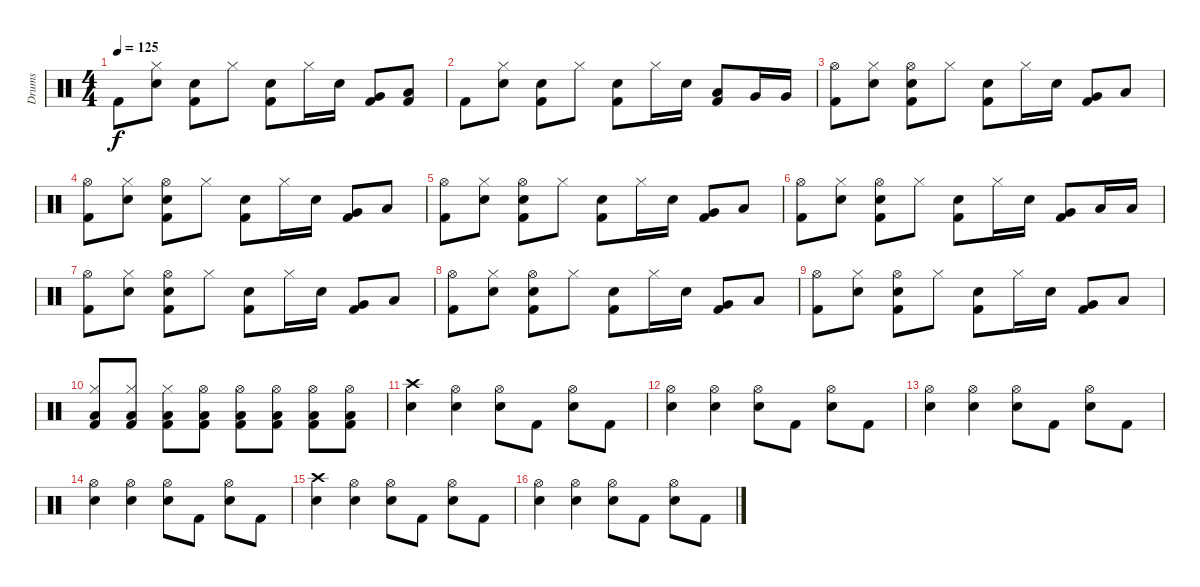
\track ("Drums" "Drums") {instrument percussion}
\staff {score}
\articulation defaults
\ts (4 4)
\tempo 125
\clef neutral
\ks c "Kick (hit) 2".8{dy f}
("Hi-Hat (closed)" "Electric Snare (hit)").8 ("Electric Snare (hit)" "Kick (hit) 2").8 "Hi-Hat (closed)".8 ("Electric Snare (hit)" "Kick (hit) 2").8 "Hi-Hat (closed)".16 "Electric Snare (hit)".16 ("Very Low Tom (hit)" "Kick (hit) 2").8 ("Low Floor Tom (hit)" "Kick (hit) 2").8 |
"Kick (hit) 2".8 ("Hi-Hat (closed)" "Electric Snare (hit)").8 ("Electric Snare (hit)" "Kick (hit) 2").8 "Hi-Hat (closed)".8 ("Electric Snare (hit)" "Kick (hit) 2").8 "Hi-Hat (closed)".16 "Electric Snare (hit)".16 ("Low Floor Tom (hit)" "Kick (hit) 2").8 "Very Low Tom (hit)".16 "Very Low Tom (hit)".16 |
("Hi-Hat (open)" "Kick (hit) 2").8 ("Hi-Hat (closed)" "Electric Snare (hit)").8 ("Hi-Hat (open)" "Electric Snare (hit)" "Kick (hit) 2").8 "Hi-Hat (closed)".8 ("Electric Snare (hit)" "Kick (hit) 2").8 "Hi-Hat (closed)".16 "Electric Snare (hit)".16 ("Very Low Tom (hit)" "Kick (hit) 2").8 "Low Floor Tom (hit)".8 |
("Hi-Hat (open)" "Kick (hit) 2").8 ("Hi-Hat (closed)" "Electric Snare (hit)").8 ("Hi-Hat (open)" "Electric Snare (hit)" "Kick (hit) 2").8 "Hi-Hat (closed)".8 ("Electric Snare (hit)" "Kick (hit) 2").8 "Hi-Hat (closed)".16 "Electric Snare (hit)".16 ("Very Low Tom (hit)" "Kick (hit) 2").8 "Low Floor Tom (hit)".8 |
("Hi-Hat (open)" "Kick (hit) 2").8 ("Hi-Hat (closed)" "Electric Snare (hit)").8 ("Hi-Hat (open)" "Electric Snare (hit)" "Kick (hit) 2").8 "Hi-Hat (closed)".8 ("Electric Snare (hit)" "Kick (hit) 2").8 "Hi-Hat (closed)".16 "Electric Snare (hit)".16 ("Very Low Tom (hit)" "Kick (hit) 2").8 "Low Floor Tom (hit)".8 |
("Hi-Hat (open)" "Kick (hit) 2").8 ("Hi-Hat (closed)" "Electric Snare (hit)").8 ("Hi-Hat (open)" "Electric Snare (hit)" "Kick (hit) 2").8 "Hi-Hat (closed)".8 ("Electric Snare (hit)" "Kick (hit) 2").8 "Hi-Hat (closed)".16 "Electric Snare (hit)".16 ("Very Low Tom (hit)" "Kick (hit) 2").8 "Low Floor Tom (hit)".16 "Low Floor Tom (hit)".16 |
("Hi-Hat (open)" "Kick (hit) 2").8 ("Hi-Hat (closed)" "Electric Snare (hit)").8 ("Hi-Hat (open)" "Electric Snare (hit)" "Kick (hit) 2").8 "Hi-Hat (closed)".8 ("Electric Snare (hit)" "Kick (hit) 2").8 "Hi-Hat (closed)".16 "Electric Snare (hit)".16 ("Very Low Tom (hit)" "Kick (hit) 2").8 "Low Floor Tom (hit)".8 |
("Hi-Hat (open)" "Kick (hit) 2").8 ("Hi-Hat (closed)" "Electric Snare (hit)").8 ("Hi-Hat (open)" "Electric Snare (hit)" "Kick (hit) 2").8 "Hi-Hat (closed)".8 ("Electric Snare (hit)" "Kick (hit) 2").8 "Hi-Hat (closed)".16 "Electric Snare (hit)".16 ("Very Low Tom (hit)" "Kick (hit) 2").8 "Low Floor Tom (hit)".8 |
("Hi-Hat (open)" "Kick (hit) 2").8 ("Hi-Hat (closed)" "Electric Snare (hit)").8 ("Hi-Hat (open)" "Electric Snare (hit)" "Kick (hit) 2").8 "Hi-Hat (closed)".8 ("Electric Snare (hit)" "Kick (hit) 2").8 "Hi-Hat (closed)".16 "Electric Snare (hit)".16 ("Very Low Tom (hit)" "Kick (hit) 2").8 "Low Floor Tom (hit)".8 |
("Hi-Hat (closed)" "Low Floor Tom (hit)" "Kick (hit) 2").8 ("Hi-Hat (closed)" "Low Floor Tom (hit)" "Kick (hit) 2").8 ("Hi-Hat (closed)" "Low Floor Tom (hit)" "Kick (hit) 2").8 ("Hi-Hat (open)" "Low Floor Tom (hit)" "Kick (hit) 2").8 ("Hi-Hat (open)" "Low Floor Tom (hit)" "Kick (hit) 2").8 ("Hi-Hat (open)" "Low Floor Tom (hit)" "Kick (hit) 2").8 ("Hi-Hat (open)" "Low Floor Tom (hit)" "Kick (hit) 2").8 ("Hi-Hat (open)" "Low Floor Tom (hit)" "Kick (hit) 2").8 |
("Crash high (hit)" "Electric Snare (hit)").4 ("Hi-Hat (open)" "Electric Snare (hit)").4 ("Hi-Hat (open)" "Electric Snare (hit)").8 "Kick (hit) 2".8 ("Hi-Hat (open)" "Electric Snare (hit)").8 "Kick (hit) 2".8 |
("Hi-Hat (open)" "Electric Snare (hit)").4 ("Hi-Hat (open)" "Electric Snare (hit)").4 ("Hi-Hat (open)" "Electric Snare (hit)").8 "Kick (hit) 2".8 ("Hi-Hat (open)" "Electric Snare (hit)").8 "Kick (hit) 2".8 |
("Hi-Hat (open)" "Electric Snare (hit)").4 ("Hi-Hat (open)" "Electric Snare (hit)").4 ("Hi-Hat (open)" "Electric Snare (hit)").8 "Kick (hit) 2".8 ("Hi-Hat (open)" "Electric Snare (hit)").8 "Kick (hit) 2".8 |
("Hi-Hat (open)" "Electric Snare (hit)").4 ("Hi-Hat (open)" "Electric Snare (hit)").4 ("Hi-Hat (open)" "Electric Snare (hit)").8 "Kick (hit) 2".8 ("Hi-Hat (open)" "Electric Snare (hit)").8 "Kick (hit) 2".8 |
("Crash high (hit)" "Electric Snare (hit)").4 ("Hi-Hat (open)" "Electric Snare (hit)").4 ("Hi-Hat (open)" "Electric Snare (hit)").8 "Kick (hit) 2".8 ("Hi-Hat (open)" "Electric Snare (hit)").8 "Kick (hit) 2".8 |
("Hi-Hat (open)" "Electric Snare (hit)").4 ("Hi-Hat (open)" "Electric Snare (hit)").4 ("Hi-Hat (open)" "Electric Snare (hit)").8 "Kick (hit) 2".8 ("Hi-Hat (open)" "Electric Snare (hit)").8 "Kick (hit) 2".8
